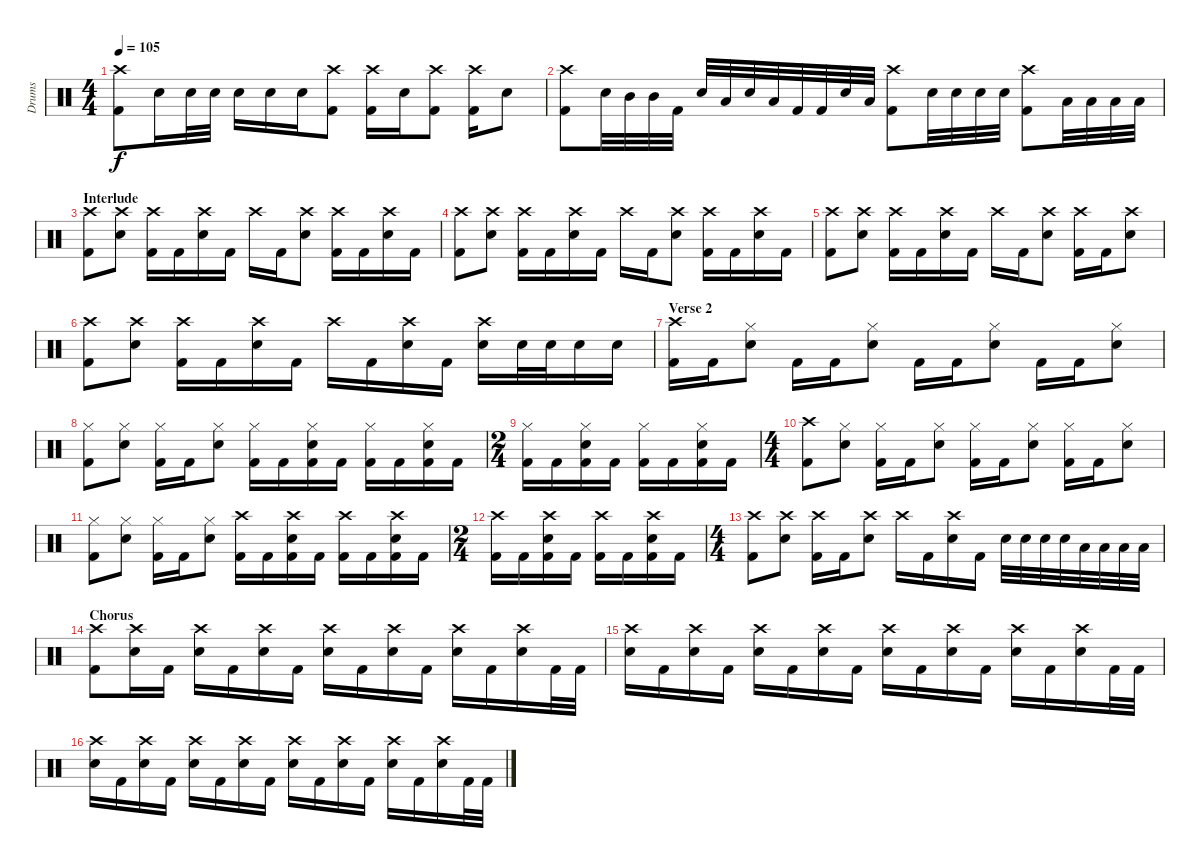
\track ("Drums" "Drums") {instrument percussion}
\staff {score}
\articulation defaults
\ts (4 4)
\tempo 105
\clef neutral
\ks c
("Crash high (hit)" "Kick (hit) 2").8{dy f} "Electric Snare (hit)".16 "Electric Snare (hit)".32 "Electric Snare (hit)".32 "Electric Snare (hit)".16 "Electric Snare (hit)".16 "Electric Snare (hit)".16 ("Crash high (hit)" "Kick (hit) 2").8 ("Crash high (hit)" "Kick (hit) 2").16 "Electric Snare (hit)".16 ("Crash high (hit)" "Kick (hit) 2").8 ("Crash high (hit)" "Kick (hit) 2").16 "Electric Snare (hit)".8 |
("Crash high (hit)" "Kick (hit) 2").8 "Electric Snare (hit)".32 "Mid Tom (hit)".32 "Mid Tom (hit)".32 "Kick (hit) 2".32 "Electric Snare (hit)".32 "Low Tom (hit)".32 "Electric Snare (hit)".32 "Low Tom (hit)".32 "Kick (hit) 2".32 "Kick (hit) 2".32 "Electric Snare (hit)".32 "Low Tom (hit)".32 ("Crash high (hit)" "Kick (hit) 2").8 "Electric Snare (hit)".32 "Electric Snare (hit)".32 "Electric Snare (hit)".32 "Electric Snare (hit)".32 ("Crash high (hit)" "Kick (hit) 2").8 "Low Tom (hit)".32 "Low Tom (hit)".32 "Low Tom (hit)".32 "Low Tom (hit)".32 |
\section ("" "Interlude")
("Crash high (hit)" "Kick (hit) 2").8 ("Crash high (hit)" "Electric Snare (hit)").8 ("Crash high (hit)" "Kick (hit) 2").16 "Kick (hit) 2".16 ("Crash high (hit)" "Electric Snare (hit)").16 "Kick (hit) 2".16 "Crash high (hit)".16 "Kick (hit) 2".16 ("Crash high (hit)" "Electric Snare (hit)").8 ("Crash high (hit)" "Kick (hit) 2").16 "Kick (hit) 2".16 ("Crash high (hit)" "Electric Snare (hit)").16 "Kick (hit) 2".16 |
("Crash high (hit)" "Kick (hit) 2").8 ("Crash high (hit)" "Electric Snare (hit)").8 ("Crash high (hit)" "Kick (hit) 2").16 "Kick (hit) 2".16 ("Crash high (hit)" "Electric Snare (hit)").16 "Kick (hit) 2".16 "Crash high (hit)".16 "Kick (hit) 2".16 ("Crash high (hit)" "Electric Snare (hit)").8 ("Crash high (hit)" "Kick (hit) 2").16 "Kick (hit) 2".16 ("Crash high (hit)" "Electric Snare (hit)").16 "Kick (hit) 2".16 |
("Crash high (hit)" "Kick (hit) 2").8 ("Crash high (hit)" "Electric Snare (hit)").8 ("Crash high (hit)" "Kick (hit) 2").16 "Kick (hit) 2".16 ("Crash high (hit)" "Electric Snare (hit)").16 "Kick (hit) 2".16 "Crash high (hit)".16 "Kick (hit) 2".16 ("Crash high (hit)" "Electric Snare (hit)").8 ("Crash high (hit)" "Kick (hit) 2").16 "Kick (hit) 2".16 ("Crash high (hit)" "Electric Snare (hit)").8 |
("Crash high (hit)" "Kick (hit) 2").8 ("Crash high (hit)" "Electric Snare (hit)").8 ("Crash high (hit)" "Kick (hit) 2").16 "Kick (hit) 2".16 ("Crash high (hit)" "Electric Snare (hit)").16 "Kick (hit) 2".16 "Crash high (hit)".16 "Kick (hit) 2".16 ("Crash high (hit)" "Electric Snare (hit)").16 "Kick (hit) 2".16 ("Crash high (hit)" "Electric Snare (hit)").16 "Electric Snare (hit)".32 "Electric Snare (hit)".32 "Electric Snare (hit)".16 "Electric Snare (hit)".16 |
\section ("" "Verse 2")
("Crash high (hit)" "Kick (hit) 2").16 "Kick (hit) 2".16 ("Hi-Hat (closed)" "Electric Snare (hit)").8 "Kick (hit) 2".16 "Kick (hit) 2".16 ("Hi-Hat (closed)" "Electric Snare (hit)").8 "Kick (hit) 2".16 "Kick (hit) 2".16 ("Hi-Hat (closed)" "Electric Snare (hit)").8 "Kick (hit) 2".16 "Kick (hit) 2".16 ("Hi-Hat (closed)" "Electric Snare (hit)").8 |
("Hi-Hat (closed)" "Kick (hit) 2").8 ("Hi-Hat (closed)" "Electric Snare (hit)").8 ("Hi-Hat (closed)" "Kick (hit) 2").16 "Kick (hit) 2".16 ("Hi-Hat (closed)" "Electric Snare (hit)").8 ("Hi-Hat (closed)" "Kick (hit) 2").16 "Kick (hit) 2".16 ("Hi-Hat (closed)" "Electric Snare (hit)" "Kick (hit) 2").16 "Kick (hit) 2".16 ("Hi-Hat (closed)" "Kick (hit) 2").16 "Kick (hit) 2".16 ("Hi-Hat (closed)" "Electric Snare (hit)" "Kick (hit) 2").16 "Kick (hit) 2".16 |
\ts (2 4)
("Hi-Hat (closed)" "Kick (hit) 2").16 "Kick (hit) 2".16 ("Hi-Hat (closed)" "Electric Snare (hit)" "Kick (hit) 2").16 "Kick (hit) 2".16 ("Hi-Hat (closed)" "Kick (hit) 2").16 "Kick (hit) 2".16 ("Hi-Hat (closed)" "Electric Snare (hit)" "Kick (hit) 2").16 "Kick (hit) 2".16 |
\ts (4 4)
("Crash high (hit)" "Kick (hit) 2").8 ("Hi-Hat (closed)" "Electric Snare (hit)").8 ("Hi-Hat (closed)" "Kick (hit) 2").16 "Kick (hit) 2".16 ("Hi-Hat (closed)" "Electric Snare (hit)").8 ("Hi-Hat (closed)" "Kick (hit) 2").16 "Kick (hit) 2".16 ("Hi-Hat (closed)" "Electric Snare (hit)").8 ("Hi-Hat (closed)" "Kick (hit) 2").16 "Kick (hit) 2".16 ("Hi-Hat (closed)" "Electric Snare (hit)").8 |
("Hi-Hat (closed)" "Kick (hit) 2").8 ("Hi-Hat (closed)" "Electric Snare (hit)").8 ("Hi-Hat (closed)" "Kick (hit) 2").16 "Kick (hit) 2".16 ("Hi-Hat (closed)" "Electric Snare (hit)").8 ("Crash high (hit)" "Kick (hit) 2").16 "Kick (hit) 2".16 ("Crash high (hit)" "Electric Snare (hit)" "Kick (hit) 2").16 "Kick (hit) 2".16 ("Crash high (hit)" "Kick (hit) 2").16 "Kick (hit) 2".16 ("Crash high (hit)" "Electric Snare (hit)" "Kick (hit) 2").16 "Kick (hit) 2".16 |
\ts (2 4)
("Crash high (hit)" "Kick (hit) 2").16 "Kick (hit) 2".16 ("Crash high (hit)" "Electric Snare (hit)" "Kick (hit) 2").16 "Kick (hit) 2".16 ("Crash high (hit)" "Kick (hit) 2").16 "Kick (hit) 2".16 ("Crash high (hit)" "Electric Snare (hit)" "Kick (hit) 2").16 "Kick (hit) 2".16 |
\ts (4 4)
("Crash high (hit)" "Kick (hit) 2").8 ("Crash high (hit)" "Electric Snare (hit)").8 ("Crash high (hit)" "Kick (hit) 2").16 "Kick (hit) 2".16 ("Crash high (hit)" "Electric Snare (hit)").8 "Crash high (hit)".16 "Kick (hit) 2".16 ("Crash high (hit)" "Electric Snare (hit)").16 "Kick (hit) 2".16 "Electric Snare (hit)".32 "Electric Snare (hit)".32 "Electric Snare (hit)".32 "Electric Snare (hit)".32 "Low Tom (hit)".32 "Low Tom (hit)".32 "Low Tom (hit)".32 "Low Tom (hit)".32 |
\section ("" "Chorus")
("Crash high (hit)" "Kick (hit) 2").8 ("Crash high (hit)" "Electric Snare (hit)").16 "Kick (hit) 2".16 ("Crash high (hit)" "Electric Snare (hit)").16 "Kick (hit) 2".16 ("Crash high (hit)" "Electric Snare (hit)").16 "Kick (hit) 2".16 ("Crash high (hit)" "Electric Snare (hit)").16 "Kick (hit) 2".16 ("Crash high (hit)" "Electric Snare (hit)").16 "Kick (hit) 2".16 ("Crash high (hit)" "Electric Snare (hit)").16 "Kick (hit) 2".16 ("Crash high (hit)" "Electric Snare (hit)").16 "Kick (hit) 2".32 "Kick (hit) 2".32 |
("Crash high (hit)" "Electric Snare (hit)").16 "Kick (hit) 2".16 ("Crash high (hit)" "Electric Snare (hit)").16 "Kick (hit) 2".16 ("Crash high (hit)" "Electric Snare (hit)").16 "Kick (hit) 2".16 ("Crash high (hit)" "Electric Snare (hit)").16 "Kick (hit) 2".16 ("Crash high (hit)" "Electric Snare (hit)").16 "Kick (hit) 2".16 ("Crash high (hit)" "Electric Snare (hit)").16 "Kick (hit) 2".16 ("Crash high (hit)" "Electric Snare (hit)").16 "Kick (hit) 2".16 ("Crash high (hit)" "Electric Snare (hit)").16 "Kick (hit) 2".32 "Kick (hit) 2".32 |
("Crash high (hit)" "Electric Snare (hit)").16 "Kick (hit) 2".16 ("Crash high (hit)" "Electric Snare (hit)").16 "Kick (hit) 2".16 ("Crash high (hit)" "Electric Snare (hit)").16 "Kick (hit) 2".16 ("Crash high (hit)" "Electric Snare (hit)").16 "Kick (hit) 2".16 ("Crash high (hit)" "Electric Snare (hit)").16 "Kick (hit) 2".16 ("Crash high (hit)" "Electric Snare (hit)").16 "Kick (hit) 2".16 ("Crash high (hit)" "Electric Snare (hit)").16 "Kick (hit) 2".16 ("Crash high (hit)" "Electric Snare (hit)").16 "Kick (hit) 2".32 "Kick (hit) 2".32
